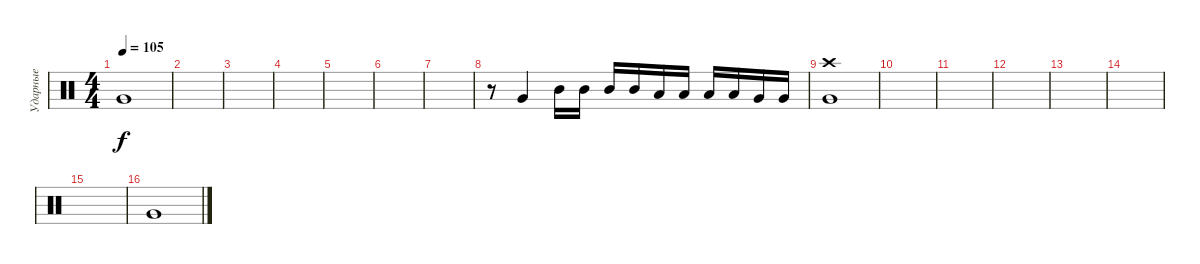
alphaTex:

\track ("Ударные" "Ударные") {instrument percussion}
\staff {score}
\articulation defaults
\ts (4 4)
\tempo 105
\clef neutral
\ks c "Very Low Tom (hit)".1{dy f}
|
|
|
|
|
|
|
r.8 "Very Low Tom (hit)".4 "Mid Tom (hit)".16 "Mid Tom (hit)".16 "Mid Tom (hit)".16 "Mid Tom (hit)".16 "Low Tom (hit)".16 "Low Tom (hit)".16 "Low Tom (hit)".16 "Low Tom (hit)".16 "Very Low Tom (hit)".16 "Very Low Tom (hit)".16 |
("Very Low Tom (hit)" "Crash high (hit)").1 |
|
|
|
|
|
|
"Very Low Tom (hit)".1
